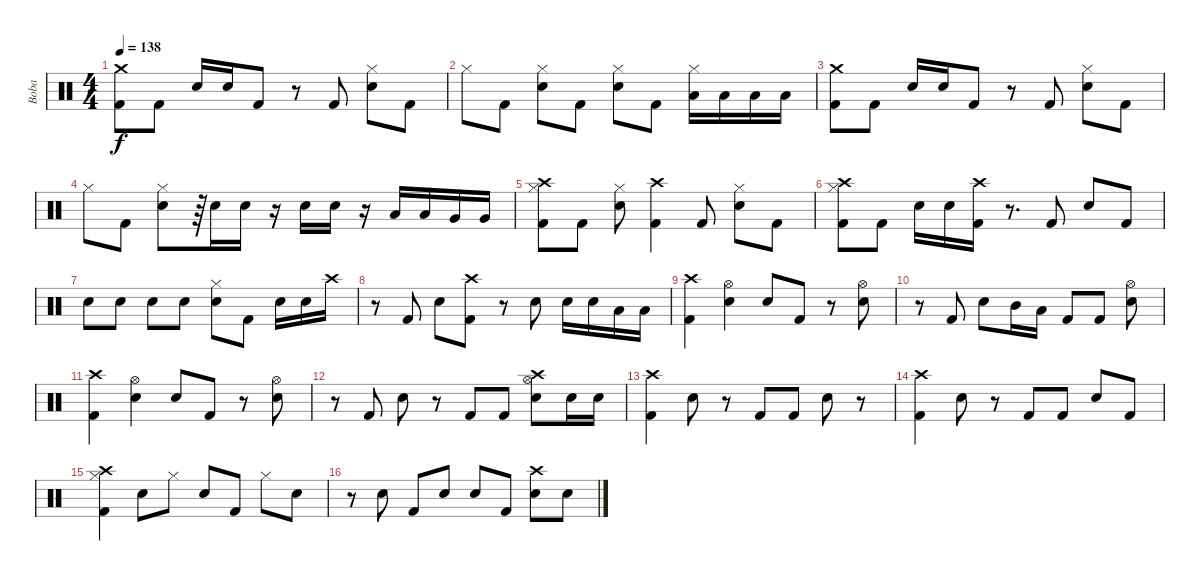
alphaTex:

\track ("Boba" "Boba") {instrument percussion}
\staff {score}
\articulation defaults
\ts (4 4)
\tempo 138
\clef neutral
\ks c
("Crash medium (hit)" "Kick (hit) 2").8{dy f} "Kick (hit) 2".8 "Electric Snare (hit)".16 "Electric Snare (hit)".16 "Kick (hit) 2".8 r.8 "Kick (hit) 2".8 ("Hi-Hat (closed)" "Electric Snare (hit)").8 "Kick (hit) 2".8 |
"Hi-Hat (closed)".8 "Kick (hit) 2".8 ("Hi-Hat (closed)" "Electric Snare (hit)").8 "Kick (hit) 2".8 ("Hi-Hat (closed)" "Electric Snare (hit)").8 "Kick (hit) 2".8 ("Hi-Hat (closed)" "Low Tom (hit)").16 "Low Tom (hit)".16 "Low Tom (hit)".16 "Low Tom (hit)".16 |
("Crash medium (hit)" "Kick (hit) 2").8 "Kick (hit) 2".8 "Electric Snare (hit)".16 "Electric Snare (hit)".16 "Kick (hit) 2".8 r.8 "Kick (hit) 2".8 ("Hi-Hat (closed)" "Electric Snare (hit)").8 "Kick (hit) 2".8 |
"Hi-Hat (closed)".8 "Kick (hit) 2".8 ("Hi-Hat (closed)" "Electric Snare (hit)").8 r.64 "Electric Snare (hit)".16 "Electric Snare (hit)".16 r.16 "Electric Snare (hit)".16 "Electric Snare (hit)".16 r.16 "Low Tom (hit)".16 "Low Tom (hit)".16 "Very Low Tom (hit)".16 "Very Low Tom (hit)".16 |
("Crash high (hit)" "Hi-Hat (closed)" "Kick (hit) 2").8 "Kick (hit) 2".8 ("Hi-Hat (closed)" "Electric Snare (hit)").8 ("Crash high (hit)" "Kick (hit) 2").4 "Kick (hit) 2".8 ("Hi-Hat (closed)" "Electric Snare (hit)").8 "Kick (hit) 2".8 |
("Crash high (hit)" "Hi-Hat (closed)" "Kick (hit) 2").8 "Kick (hit) 2".8 "Electric Snare (hit)".16 "Electric Snare (hit)".16 ("Crash high (hit)" "Kick (hit) 2").16 r.8{d} "Kick (hit) 2".8 "Electric Snare (hit)".8 "Kick (hit) 2".8 |
"Electric Snare (hit)".8 "Electric Snare (hit)".8 "Electric Snare (hit)".8 "Electric Snare (hit)".8 ("Hi-Hat (closed)" "Electric Snare (hit)").8 "Kick (hit) 2".8 "Electric Snare (hit)".16 "Electric Snare (hit)".16 "Crash high (hit)".16 |
r.8 "Kick (hit) 2".8 "Electric Snare (hit)".8 ("Crash high (hit)" "Kick (hit) 2").8 r.8 "Electric Snare (hit)".8 "Electric Snare (hit)".16 "Electric Snare (hit)".16 "Low Tom (hit)".16 "Low Tom (hit)".16 |
("Crash high (hit)" "Kick (hit) 2").4 ("Hi-Hat (open)" "Electric Snare (hit)").4 "Electric Snare (hit)".8 "Kick (hit) 2".8 r.8 ("Hi-Hat (open)" "Electric Snare (hit)").8 |
r.8 "Kick (hit) 2".8 "Electric Snare (hit)".8 "Mid Tom (hit)".16 "Low Tom (hit)".16 "Kick (hit) 2".8 "Kick (hit) 2".8 ("Hi-Hat (open)" "Electric Snare (hit)").8 |
("Crash high (hit)" "Kick (hit) 2").4 ("Hi-Hat (open)" "Electric Snare (hit)").4 "Electric Snare (hit)".8 "Kick (hit) 2".8 r.8 ("Hi-Hat (open)" "Electric Snare (hit)").8 |
r.8 "Kick (hit) 2".8 "Electric Snare (hit)".8 r.8 "Kick (hit) 2".8 "Kick (hit) 2".8 ("Crash high (hit)" "Hi-Hat (open)" "Electric Snare (hit)").8 "Electric Snare (hit)".16 "Electric Snare (hit)".16 |
("Crash high (hit)" "Kick (hit) 2").4 "Electric Snare (hit)".8 r.8 "Kick (hit) 2".8 "Kick (hit) 2".8 "Electric Snare (hit)".8 r.8 |
("Crash high (hit)" "Kick (hit) 2").4 "Electric Snare (hit)".8 r.8 "Kick (hit) 2".8 "Kick (hit) 2".8 "Electric Snare (hit)".8 "Kick (hit) 2".8 |
("Crash high (hit)" "Hi-Hat (closed)" "Kick (hit) 2").4 "Electric Snare (hit)".8 "Hi-Hat (closed)".8 "Electric Snare (hit)".8 "Kick (hit) 2".8 "Hi-Hat (closed)".8 "Electric Snare (hit)".8 |
r.8 "Electric Snare (hit)".8 "Kick (hit) 2".8 "Electric Snare (hit)".8 "Electric Snare (hit)".8 "Kick (hit) 2".8 ("Crash high (hit)" "Electric Snare (hit)").8 "Electric Snare (hit)".8
